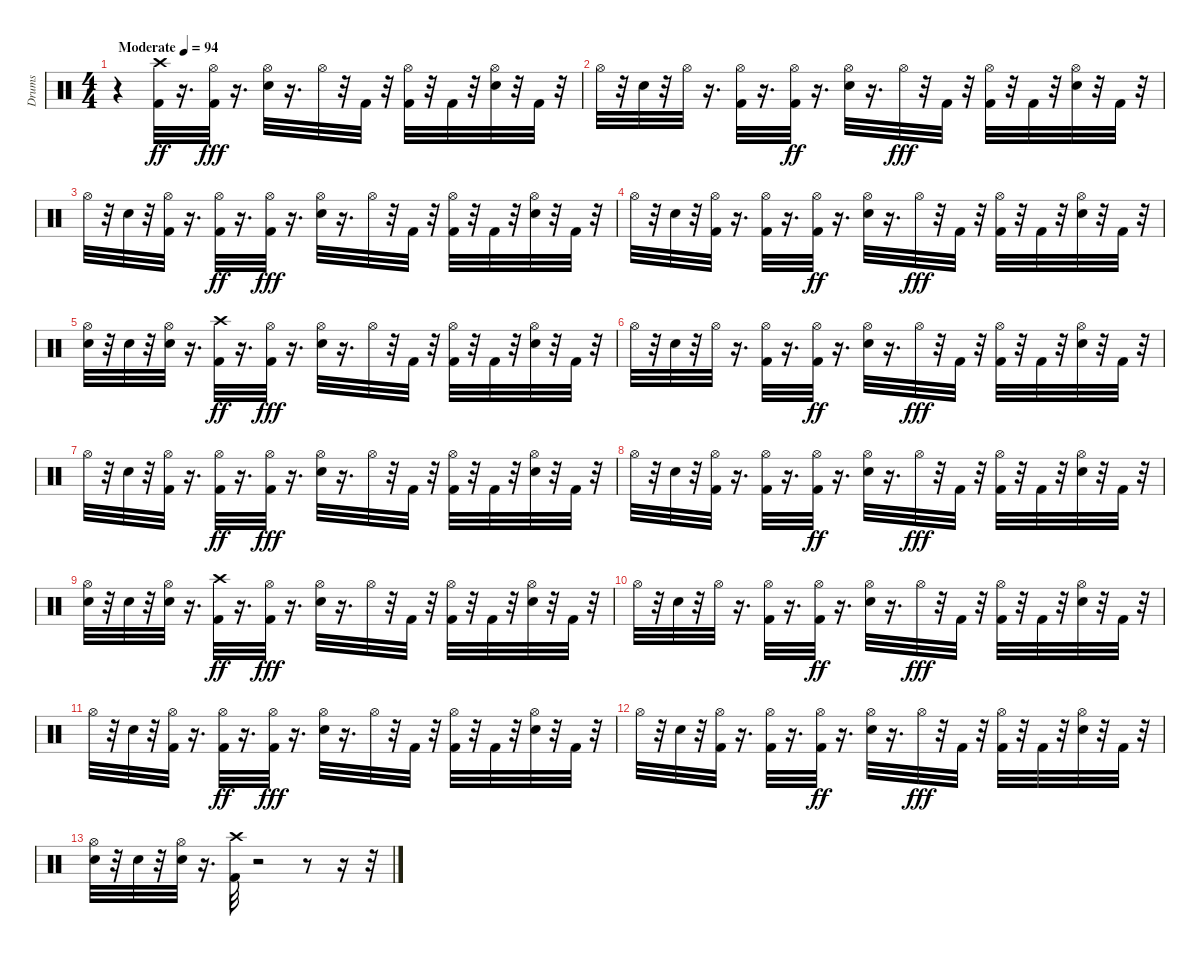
\track ("Drums" "Drums") {instrument percussion}
\staff {score}
\articulation defaults
\ts (4 4)
\tempo (94 "Moderate")
\clef neutral
\ks c
r.4{dy ff} ("Kick (hit) 2" "Crash high (hit)").32 r.16{d} ("Kick (hit) 2" "Hi-Hat (open)").32{dy fff} r.16{d} ("Electric Snare (hit)" "Hi-Hat (open)").32 r.16{d} "Hi-Hat (open)".32 r.32 "Kick (hit) 2".32 r.32 ("Kick (hit) 2" "Hi-Hat (open)").32 r.32 "Kick (hit) 2".32 r.32 ("Electric Snare (hit)" "Hi-Hat (open)").32 r.32 "Kick (hit) 2".32 r.32 |
"Hi-Hat (open)".32 r.32 "Electric Snare (hit)".32 r.32 "Hi-Hat (open)".32 r.16{d} ("Kick (hit) 2" "Hi-Hat (open)").32 r.16{d} ("Kick (hit) 2" "Hi-Hat (open)").32{dy ff} r.16{d} ("Electric Snare (hit)" "Hi-Hat (open)").32 r.16{d} "Hi-Hat (open)".32{dy fff} r.32 "Kick (hit) 2".32 r.32 ("Kick (hit) 2" "Hi-Hat (open)").32 r.32 "Kick (hit) 2".32 r.32 ("Electric Snare (hit)" "Hi-Hat (open)").32 r.32 "Kick (hit) 2".32 r.32 |
"Hi-Hat (open)".32 r.32 "Electric Snare (hit)".32 r.32 ("Kick (hit) 2" "Hi-Hat (open)").32 r.16{d} ("Kick (hit) 2" "Hi-Hat (open)").32{dy ff} r.16{d} ("Kick (hit) 2" "Hi-Hat (open)").32{dy fff} r.16{d} ("Electric Snare (hit)" "Hi-Hat (open)").32 r.16{d} "Hi-Hat (open)".32 r.32 "Kick (hit) 2".32 r.32 ("Kick (hit) 2" "Hi-Hat (open)").32 r.32 "Kick (hit) 2".32 r.32 ("Electric Snare (hit)" "Hi-Hat (open)").32 r.32 "Kick (hit) 2".32 r.32 |
"Hi-Hat (open)".32 r.32 "Electric Snare (hit)".32 r.32 ("Kick (hit) 2" "Hi-Hat (open)").32 r.16{d} ("Kick (hit) 2" "Hi-Hat (open)").32 r.16{d} ("Kick (hit) 2" "Hi-Hat (open)").32{dy ff} r.16{d} ("Electric Snare (hit)" "Hi-Hat (open)").32 r.16{d} "Hi-Hat (open)".32{dy fff} r.32 "Kick (hit) 2".32 r.32 ("Kick (hit) 2" "Hi-Hat (open)").32 r.32 "Kick (hit) 2".32 r.32 ("Electric Snare (hit)" "Hi-Hat (open)").32 r.32 "Kick (hit) 2".32 r.32 |
("Electric Snare (hit)" "Hi-Hat (open)").32 r.32 "Electric Snare (hit)".32 r.32 ("Electric Snare (hit)" "Hi-Hat (open)").32 r.16{d} ("Kick (hit) 2" "Crash high (hit)").32{dy ff} r.16{d} ("Kick (hit) 2" "Hi-Hat (open)").32{dy fff} r.16{d} ("Electric Snare (hit)" "Hi-Hat (open)").32 r.16{d} "Hi-Hat (open)".32 r.32 "Kick (hit) 2".32 r.32 ("Kick (hit) 2" "Hi-Hat (open)").32 r.32 "Kick (hit) 2".32 r.32 ("Electric Snare (hit)" "Hi-Hat (open)").32 r.32 "Kick (hit) 2".32 r.32 |
"Hi-Hat (open)".32 r.32 "Electric Snare (hit)".32 r.32 "Hi-Hat (open)".32 r.16{d} ("Kick (hit) 2" "Hi-Hat (open)").32 r.16{d} ("Kick (hit) 2" "Hi-Hat (open)").32{dy ff} r.16{d} ("Electric Snare (hit)" "Hi-Hat (open)").32 r.16{d} "Hi-Hat (open)".32{dy fff} r.32 "Kick (hit) 2".32 r.32 ("Kick (hit) 2" "Hi-Hat (open)").32 r.32 "Kick (hit) 2".32 r.32 ("Electric Snare (hit)" "Hi-Hat (open)").32 r.32 "Kick (hit) 2".32 r.32 |
"Hi-Hat (open)".32 r.32 "Electric Snare (hit)".32 r.32 ("Kick (hit) 2" "Hi-Hat (open)").32 r.16{d} ("Kick (hit) 2" "Hi-Hat (open)").32{dy ff} r.16{d} ("Kick (hit) 2" "Hi-Hat (open)").32{dy fff} r.16{d} ("Electric Snare (hit)" "Hi-Hat (open)").32 r.16{d} "Hi-Hat (open)".32 r.32 "Kick (hit) 2".32 r.32 ("Kick (hit) 2" "Hi-Hat (open)").32 r.32 "Kick (hit) 2".32 r.32 ("Electric Snare (hit)" "Hi-Hat (open)").32 r.32 "Kick (hit) 2".32 r.32 |
"Hi-Hat (open)".32 r.32 "Electric Snare (hit)".32 r.32 ("Kick (hit) 2" "Hi-Hat (open)").32 r.16{d} ("Kick (hit) 2" "Hi-Hat (open)").32 r.16{d} ("Kick (hit) 2" "Hi-Hat (open)").32{dy ff} r.16{d} ("Electric Snare (hit)" "Hi-Hat (open)").32 r.16{d} "Hi-Hat (open)".32{dy fff} r.32 "Kick (hit) 2".32 r.32 ("Kick (hit) 2" "Hi-Hat (open)").32 r.32 "Kick (hit) 2".32 r.32 ("Electric Snare (hit)" "Hi-Hat (open)").32 r.32 "Kick (hit) 2".32 r.32 |
("Electric Snare (hit)" "Hi-Hat (open)").32 r.32 "Electric Snare (hit)".32 r.32 ("Electric Snare (hit)" "Hi-Hat (open)").32 r.16{d} ("Kick (hit) 2" "Crash high (hit)").32{dy ff} r.16{d} ("Kick (hit) 2" "Hi-Hat (open)").32{dy fff} r.16{d} ("Electric Snare (hit)" "Hi-Hat (open)").32 r.16{d} "Hi-Hat (open)".32 r.32 "Kick (hit) 2".32 r.32 ("Kick (hit) 2" "Hi-Hat (open)").32 r.32 "Kick (hit) 2".32 r.32 ("Electric Snare (hit)" "Hi-Hat (open)").32 r.32 "Kick (hit) 2".32 r.32 |
"Hi-Hat (open)".32 r.32 "Electric Snare (hit)".32 r.32 "Hi-Hat (open)".32 r.16{d} ("Kick (hit) 2" "Hi-Hat (open)").32 r.16{d} ("Kick (hit) 2" "Hi-Hat (open)").32{dy ff} r.16{d} ("Electric Snare (hit)" "Hi-Hat (open)").32 r.16{d} "Hi-Hat (open)".32{dy fff} r.32 "Kick (hit) 2".32 r.32 ("Kick (hit) 2" "Hi-Hat (open)").32 r.32 "Kick (hit) 2".32 r.32 ("Electric Snare (hit)" "Hi-Hat (open)").32 r.32 "Kick (hit) 2".32 r.32 |
"Hi-Hat (open)".32 r.32 "Electric Snare (hit)".32 r.32 ("Kick (hit) 2" "Hi-Hat (open)").32 r.16{d} ("Kick (hit) 2" "Hi-Hat (open)").32{dy ff} r.16{d} ("Kick (hit) 2" "Hi-Hat (open)").32{dy fff} r.16{d} ("Electric Snare (hit)" "Hi-Hat (open)").32 r.16{d} "Hi-Hat (open)".32 r.32 "Kick (hit) 2".32 r.32 ("Kick (hit) 2" "Hi-Hat (open)").32 r.32 "Kick (hit) 2".32 r.32 ("Electric Snare (hit)" "Hi-Hat (open)").32 r.32 "Kick (hit) 2".32 r.32 |
"Hi-Hat (open)".32 r.32 "Electric Snare (hit)".32 r.32 ("Kick (hit) 2" "Hi-Hat (open)").32 r.16{d} ("Kick (hit) 2" "Hi-Hat (open)").32 r.16{d} ("Kick (hit) 2" "Hi-Hat (open)").32{dy ff} r.16{d} ("Electric Snare (hit)" "Hi-Hat (open)").32 r.16{d} "Hi-Hat (open)".32{dy fff} r.32 "Kick (hit) 2".32 r.32 ("Kick (hit) 2" "Hi-Hat (open)").32 r.32 "Kick (hit) 2".32 r.32 ("Electric Snare (hit)" "Hi-Hat (open)").32 r.32 "Kick (hit) 2".32 r.32 |
("Electric Snare (hit)" "Hi-Hat (open)").32 r.32 "Electric Snare (hit)".32 r.32 ("Electric Snare (hit)" "Hi-Hat (open)").32 r.16{d} ("Kick (hit) 2" "Crash high (hit)").32 r.2 r.8 r.16 r.32
